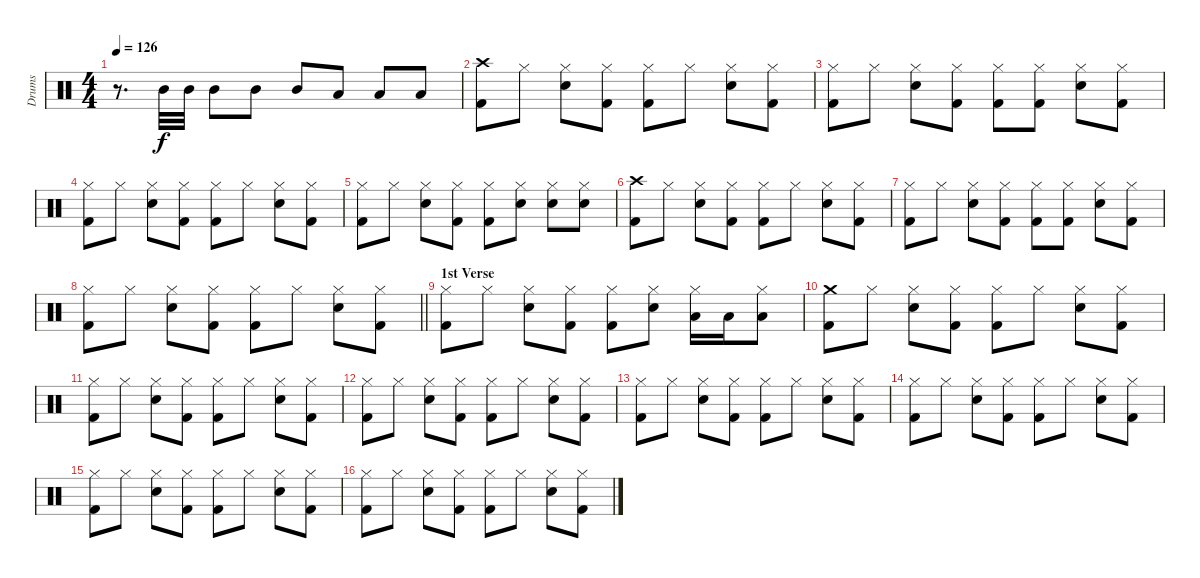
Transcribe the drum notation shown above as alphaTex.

\track ("Drums" "Drums") {instrument percussion}
\staff {score}
\articulation defaults
\ts (4 4)
\tempo 126
\clef neutral
\ks c
r.8{d dy f} "Mid Tom (hit)".32 "Mid Tom (hit)".32 "Mid Tom (hit)".8 "Mid Tom (hit)".8 "Mid Tom (hit)".8 "Low Tom (hit)".8 "Low Tom (hit)".8 "Low Tom (hit)".8 |
("Kick (hit) 2" "Crash high (hit)").8 "Hi-Hat (closed)".8 ("Snare (hit) 2" "Hi-Hat (closed)").8 ("Kick (hit) 2" "Hi-Hat (closed)").8 ("Kick (hit) 2" "Hi-Hat (closed)").8 "Hi-Hat (closed)".8 ("Snare (hit) 2" "Hi-Hat (closed)").8 ("Kick (hit) 2" "Hi-Hat (closed)").8 |
("Kick (hit) 2" "Hi-Hat (closed)").8 "Hi-Hat (closed)".8 ("Snare (hit) 2" "Hi-Hat (closed)").8 ("Kick (hit) 2" "Hi-Hat (closed)").8 ("Kick (hit) 2" "Hi-Hat (closed)").8 ("Kick (hit) 2" "Hi-Hat (closed)").8 ("Snare (hit) 2" "Hi-Hat (closed)").8 ("Kick (hit) 2" "Hi-Hat (closed)").8 |
("Kick (hit) 2" "Hi-Hat (closed)").8 "Hi-Hat (closed)".8 ("Snare (hit) 2" "Hi-Hat (closed)").8 ("Kick (hit) 2" "Hi-Hat (closed)").8 ("Kick (hit) 2" "Hi-Hat (closed)").8 "Hi-Hat (closed)".8 ("Snare (hit) 2" "Hi-Hat (closed)").8 ("Kick (hit) 2" "Hi-Hat (closed)").8 |
("Kick (hit) 2" "Hi-Hat (closed)").8 "Hi-Hat (closed)".8 ("Snare (hit) 2" "Hi-Hat (closed)").8 ("Kick (hit) 2" "Hi-Hat (closed)").8 ("Kick (hit) 2" "Hi-Hat (closed)").8 ("Snare (hit) 2" "Hi-Hat (closed)").8 ("Snare (hit) 2" "Hi-Hat (closed)").8 ("Snare (hit) 2" "Hi-Hat (closed)").8 |
("Kick (hit) 2" "Crash high (hit)").8 "Hi-Hat (closed)".8 ("Snare (hit) 2" "Hi-Hat (closed)").8 ("Kick (hit) 2" "Hi-Hat (closed)").8 ("Kick (hit) 2" "Hi-Hat (closed)").8 "Hi-Hat (closed)".8 ("Snare (hit) 2" "Hi-Hat (closed)").8 ("Kick (hit) 2" "Hi-Hat (closed)").8 |
("Kick (hit) 2" "Hi-Hat (closed)").8 "Hi-Hat (closed)".8 ("Snare (hit) 2" "Hi-Hat (closed)").8 ("Kick (hit) 2" "Hi-Hat (closed)").8 ("Kick (hit) 2" "Hi-Hat (closed)").8 ("Kick (hit) 2" "Hi-Hat (closed)").8 ("Snare (hit) 2" "Hi-Hat (closed)").8 ("Kick (hit) 2" "Hi-Hat (closed)").8 |
\barLineRight lightlight
("Kick (hit) 2" "Hi-Hat (closed)").8 "Hi-Hat (closed)".8 ("Snare (hit) 2" "Hi-Hat (closed)").8 ("Kick (hit) 2" "Hi-Hat (closed)").8 ("Kick (hit) 2" "Hi-Hat (closed)").8 "Hi-Hat (closed)".8 ("Snare (hit) 2" "Hi-Hat (closed)").8 ("Kick (hit) 2" "Hi-Hat (closed)").8 |
\section ("" "1st Verse")
("Kick (hit) 2" "Hi-Hat (closed)").8 "Hi-Hat (closed)".8 ("Snare (hit) 2" "Hi-Hat (closed)").8 ("Kick (hit) 2" "Hi-Hat (closed)").8 ("Kick (hit) 2" "Hi-Hat (closed)").8 ("Snare (hit) 2" "Hi-Hat (closed)").8 ("Hi-Hat (closed)" "Low Tom (hit)").16 "Low Tom (hit)".16 ("Hi-Hat (closed)" "Low Tom (hit)").8 |
("Kick (hit) 2" "Crash medium (hit)").8 "Hi-Hat (closed)".8 ("Snare (hit) 2" "Hi-Hat (closed)").8 ("Kick (hit) 2" "Hi-Hat (closed)").8 ("Kick (hit) 2" "Hi-Hat (closed)").8 "Hi-Hat (closed)".8 ("Snare (hit) 2" "Hi-Hat (closed)").8 ("Kick (hit) 2" "Hi-Hat (closed)").8 |
("Kick (hit) 2" "Hi-Hat (closed)").8 "Hi-Hat (closed)".8 ("Snare (hit) 2" "Hi-Hat (closed)").8 ("Kick (hit) 2" "Hi-Hat (closed)").8 ("Kick (hit) 2" "Hi-Hat (closed)").8 "Hi-Hat (closed)".8 ("Snare (hit) 2" "Hi-Hat (closed)").8 ("Kick (hit) 2" "Hi-Hat (closed)").8 |
("Kick (hit) 2" "Hi-Hat (closed)").8 "Hi-Hat (closed)".8 ("Snare (hit) 2" "Hi-Hat (closed)").8 ("Kick (hit) 2" "Hi-Hat (closed)").8 ("Kick (hit) 2" "Hi-Hat (closed)").8 "Hi-Hat (closed)".8 ("Snare (hit) 2" "Hi-Hat (closed)").8 ("Kick (hit) 2" "Hi-Hat (closed)").8 |
("Kick (hit) 2" "Hi-Hat (closed)").8 "Hi-Hat (closed)".8 ("Snare (hit) 2" "Hi-Hat (closed)").8 ("Kick (hit) 2" "Hi-Hat (closed)").8 ("Kick (hit) 2" "Hi-Hat (closed)").8 "Hi-Hat (closed)".8 ("Snare (hit) 2" "Hi-Hat (closed)").8 ("Kick (hit) 2" "Hi-Hat (closed)").8 |
("Kick (hit) 2" "Hi-Hat (closed)").8 "Hi-Hat (closed)".8 ("Snare (hit) 2" "Hi-Hat (closed)").8 ("Kick (hit) 2" "Hi-Hat (closed)").8 ("Kick (hit) 2" "Hi-Hat (closed)").8 "Hi-Hat (closed)".8 ("Snare (hit) 2" "Hi-Hat (closed)").8 ("Kick (hit) 2" "Hi-Hat (closed)").8 |
("Kick (hit) 2" "Hi-Hat (closed)").8 "Hi-Hat (closed)".8 ("Snare (hit) 2" "Hi-Hat (closed)").8 ("Kick (hit) 2" "Hi-Hat (closed)").8 ("Kick (hit) 2" "Hi-Hat (closed)").8 "Hi-Hat (closed)".8 ("Snare (hit) 2" "Hi-Hat (closed)").8 ("Kick (hit) 2" "Hi-Hat (closed)").8 |
("Kick (hit) 2" "Hi-Hat (closed)").8 "Hi-Hat (closed)".8 ("Snare (hit) 2" "Hi-Hat (closed)").8 ("Kick (hit) 2" "Hi-Hat (closed)").8 ("Kick (hit) 2" "Hi-Hat (closed)").8 "Hi-Hat (closed)".8 ("Snare (hit) 2" "Hi-Hat (closed)").8 ("Kick (hit) 2" "Hi-Hat (closed)").8
